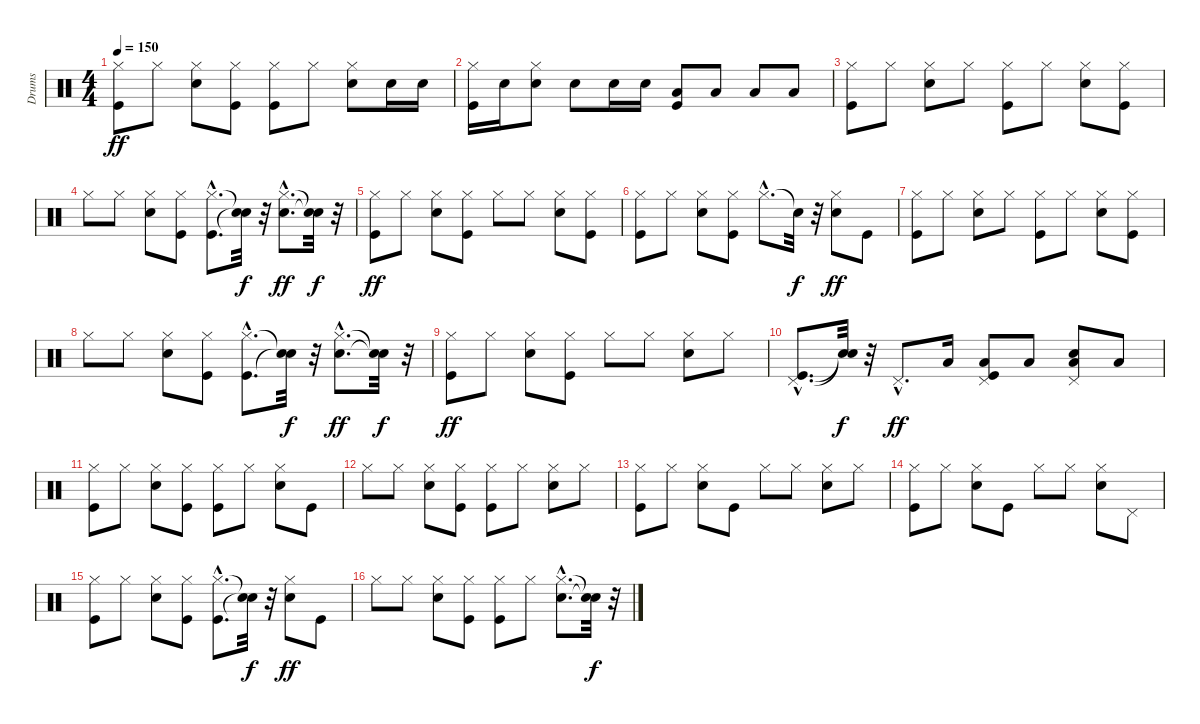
\track ("Drums" "Drums") {instrument percussion}
\staff {score}
\articulation defaults
\ts (4 4)
\tempo 150
\clef neutral
\ks c
("Kick (hit)" "Hi-Hat (closed)").8{dy ff} "Hi-Hat (closed)".8 ("Snare (hit) 2" "Hi-Hat (closed)").8 ("Kick (hit)" "Hi-Hat (closed)").8 ("Kick (hit)" "Hi-Hat (closed)").8 "Hi-Hat (closed)".8 ("Snare (hit) 2" "Hi-Hat (closed)").8 "Snare (hit) 2".16 "Snare (hit) 2".16 |
("Kick (hit)" "Hi-Hat (closed)").16 "Snare (hit) 2".16 ("Snare (hit) 2" "Hi-Hat (closed)").8 "Snare (hit) 2".8 "Snare (hit) 2".16 "Snare (hit) 2".16 ("Kick (hit)" "Low Tom (hit)").8 "Low Tom (hit)".8 "Low Floor Tom (hit)".8 "Low Floor Tom (hit)".8 |
("Kick (hit)" "Hi-Hat (closed)").8 "Hi-Hat (closed)".8 ("Snare (hit) 2" "Hi-Hat (closed)").8 "Hi-Hat (closed)".8 ("Kick (hit)" "Hi-Hat (closed)").8 "Hi-Hat (closed)".8 ("Snare (hit) 2" "Hi-Hat (closed)").8 ("Kick (hit)" "Hi-Hat (closed)").8 |
"Hi-Hat (closed)".8 "Hi-Hat (closed)".8 ("Snare (hit) 2" "Hi-Hat (closed)").8 ("Kick (hit)" "Hi-Hat (closed)").8 ("Kick (hit)"{hac} "Hi-Hat (closed)"{hac}).8{d} ("Snare (hit)"{t} "Snare (hit)"{t}).32{dy f} r.32 ("Snare (hit) 2"{hac} "Hi-Hat (closed)"{hac}).8{d dy ff} ("Snare (hit)"{t} "Snare (hit)"{t}).32{dy f} r.32 |
("Kick (hit)" "Hi-Hat (closed)").8{dy ff} "Hi-Hat (closed)".8 ("Snare (hit) 2" "Hi-Hat (closed)").8 ("Kick (hit)" "Hi-Hat (closed)").8 "Hi-Hat (closed)".8 "Hi-Hat (closed)".8 ("Snare (hit) 2" "Hi-Hat (closed)").8 ("Kick (hit)" "Hi-Hat (closed)").8 |
("Kick (hit)" "Hi-Hat (closed)").8 "Hi-Hat (closed)".8 ("Snare (hit) 2" "Hi-Hat (closed)").8 ("Kick (hit)" "Hi-Hat (closed)").8 "Hi-Hat (closed)"{hac}.8{d} "Snare (hit)"{t}.32{dy f} r.32 ("Snare (hit) 2" "Hi-Hat (closed)").8{dy ff} "Kick (hit)".8 |
("Kick (hit)" "Hi-Hat (closed)").8 "Hi-Hat (closed)".8 ("Snare (hit) 2" "Hi-Hat (closed)").8 "Hi-Hat (closed)".8 ("Kick (hit)" "Hi-Hat (closed)").8 "Hi-Hat (closed)".8 ("Snare (hit) 2" "Hi-Hat (closed)").8 ("Kick (hit)" "Hi-Hat (closed)").8 |
"Hi-Hat (closed)".8 "Hi-Hat (closed)".8 ("Snare (hit) 2" "Hi-Hat (closed)").8 ("Kick (hit)" "Hi-Hat (closed)").8 ("Kick (hit)"{hac} "Hi-Hat (closed)"{hac}).8{d} ("Snare (hit)"{t} "Snare (hit)"{t}).32{dy f} r.32 ("Snare (hit) 2"{hac} "Hi-Hat (closed)"{hac}).8{d dy ff} ("Snare (hit)"{t} "Snare (hit)"{t}).32{dy f} r.32 |
("Kick (hit)" "Hi-Hat (closed)").8{dy ff} "Hi-Hat (closed)".8 ("Snare (hit) 2" "Hi-Hat (closed)").8 ("Kick (hit)" "Hi-Hat (closed)").8 "Hi-Hat (closed)".8 "Hi-Hat (closed)".8 ("Snare (hit) 2" "Hi-Hat (closed)").8 "Hi-Hat (closed)".8 |
("Kick (hit)"{hac} "Pedal Hi-Hat (hit)"{hac}).8{d} ("Snare (hit)"{t} "Snare (hit)"{t}).32{dy f} r.32 "Pedal Hi-Hat (hit)"{hac}.8{d dy ff} "Low Tom (hit)".16 ("Kick (hit)" "Pedal Hi-Hat (hit)" "Low Tom (hit)").8 "Low Floor Tom (hit)".8 ("Snare (hit) 2" "Low Floor Tom (hit)" "Pedal Hi-Hat (hit)").8 "Low Floor Tom (hit)".8 |
("Kick (hit)" "Hi-Hat (closed)").8 "Hi-Hat (closed)".8 ("Snare (hit) 2" "Hi-Hat (closed)").8 ("Kick (hit)" "Hi-Hat (closed)").8 ("Kick (hit)" "Hi-Hat (closed)").8 "Hi-Hat (closed)".8 ("Snare (hit) 2" "Hi-Hat (closed)").8 "Kick (hit)".8 |
"Hi-Hat (closed)".8 "Hi-Hat (closed)".8 ("Snare (hit) 2" "Hi-Hat (closed)").8 ("Kick (hit)" "Hi-Hat (closed)").8 ("Kick (hit)" "Hi-Hat (closed)").8 "Hi-Hat (closed)".8 ("Snare (hit) 2" "Hi-Hat (closed)").8 "Hi-Hat (closed)".8 |
("Kick (hit)" "Hi-Hat (closed)").8 "Hi-Hat (closed)".8 ("Snare (hit) 2" "Hi-Hat (closed)").8 "Kick (hit)".8 "Hi-Hat (closed)".8 "Hi-Hat (closed)".8 ("Snare (hit) 2" "Hi-Hat (closed)").8 "Hi-Hat (closed)".8 |
("Kick (hit)" "Hi-Hat (closed)").8 "Hi-Hat (closed)".8 ("Snare (hit) 2" "Hi-Hat (closed)").8 "Kick (hit)".8 "Hi-Hat (closed)".8 "Hi-Hat (closed)".8 ("Snare (hit) 2" "Hi-Hat (closed)").8 "Pedal Hi-Hat (hit)".8 |
("Kick (hit)" "Hi-Hat (closed)").8 "Hi-Hat (closed)".8 ("Snare (hit) 2" "Hi-Hat (closed)").8 ("Kick (hit)" "Hi-Hat (closed)").8 ("Kick (hit)"{hac} "Hi-Hat (closed)"{hac}).8{d} ("Snare (hit)"{t} "Snare (hit)"{t}).32{dy f} r.32 ("Snare (hit) 2" "Hi-Hat (closed)").8{dy ff} "Kick (hit)".8 |
"Hi-Hat (closed)".8 "Hi-Hat (closed)".8 ("Snare (hit) 2" "Hi-Hat (closed)").8 ("Kick (hit)" "Hi-Hat (closed)").8 ("Kick (hit)" "Hi-Hat (closed)").8 "Hi-Hat (closed)".8 ("Snare (hit) 2"{hac} "Hi-Hat (closed)"{hac}).8{d} ("Snare (hit)"{t} "Snare (hit)"{t}).32{dy f} r.32
